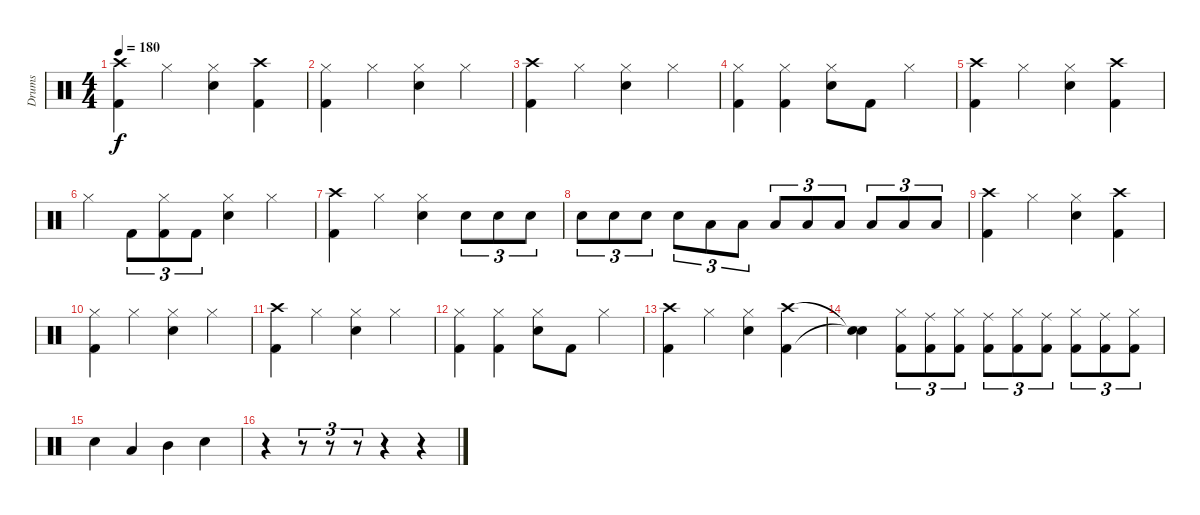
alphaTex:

\track ("Drums" "Drums") {instrument percussion}
\staff {score}
\articulation defaults
\ts (4 4)
\tempo 180
\clef neutral
\ks c
("Crash high (hit)" "Kick (hit) 2").4{dy f} "Hi-Hat (closed)".4 ("Hi-Hat (closed)" "Electric Snare (hit)").4 ("Crash high (hit)" "Kick (hit) 2").4 |
("Hi-Hat (closed)" "Kick (hit) 2").4 "Hi-Hat (closed)".4 ("Hi-Hat (closed)" "Electric Snare (hit)").4 "Hi-Hat (closed)".4 |
("Crash high (hit)" "Kick (hit) 2").4 "Hi-Hat (closed)".4 ("Hi-Hat (closed)" "Electric Snare (hit)").4 "Hi-Hat (closed)".4 |
("Hi-Hat (closed)" "Kick (hit) 2").4 ("Hi-Hat (closed)" "Kick (hit) 2").4 ("Hi-Hat (closed)" "Electric Snare (hit)").8 "Kick (hit) 2".8 "Hi-Hat (closed)".4 |
("Crash high (hit)" "Kick (hit) 2").4 "Hi-Hat (closed)".4 ("Hi-Hat (closed)" "Electric Snare (hit)").4 ("Crash high (hit)" "Kick (hit) 2").4 |
"Hi-Hat (closed)".4 "Kick (hit) 2".8{tu (3 2)} ("Hi-Hat (closed)" "Kick (hit) 2").8{tu (3 2)} "Kick (hit) 2".8{tu (3 2)} ("Hi-Hat (closed)" "Electric Snare (hit)").4 "Hi-Hat (closed)".4 |
("Crash high (hit)" "Kick (hit) 2").4 "Hi-Hat (closed)".4 ("Hi-Hat (closed)" "Electric Snare (hit)").4 "Electric Snare (hit)".8{tu (3 2)} "Electric Snare (hit)".8{tu (3 2)} "Electric Snare (hit)".8{tu (3 2)} |
"Electric Snare (hit)".8{tu (3 2)} "Electric Snare (hit)".8{tu (3 2)} "Electric Snare (hit)".8{tu (3 2)} "Electric Snare (hit)".8{tu (3 2)} "Low Tom (hit)".8{tu (3 2)} "Low Tom (hit)".8{tu (3 2)} "Low Tom (hit)".8{tu (3 2)} "Low Tom (hit)".8{tu (3 2)} "Low Tom (hit)".8{tu (3 2)} "Low Tom (hit)".8{tu (3 2)} "Low Tom (hit)".8{tu (3 2)} "Low Tom (hit)".8{tu (3 2)} |
("Crash high (hit)" "Kick (hit) 2").4 "Hi-Hat (closed)".4 ("Hi-Hat (closed)" "Electric Snare (hit)").4 ("Crash high (hit)" "Kick (hit) 2").4 |
("Hi-Hat (closed)" "Kick (hit) 2").4 "Hi-Hat (closed)".4 ("Hi-Hat (closed)" "Electric Snare (hit)").4 "Hi-Hat (closed)".4 |
("Crash high (hit)" "Kick (hit) 2").4 "Hi-Hat (closed)".4 ("Hi-Hat (closed)" "Electric Snare (hit)").4 "Hi-Hat (closed)".4 |
("Hi-Hat (closed)" "Kick (hit) 2").4 ("Hi-Hat (closed)" "Kick (hit) 2").4 ("Hi-Hat (closed)" "Electric Snare (hit)").8 "Kick (hit) 2".8 "Hi-Hat (closed)".4 |
("Crash high (hit)" "Kick (hit) 2").4 "Hi-Hat (closed)".4 ("Hi-Hat (closed)" "Electric Snare (hit)").4 ("Crash high (hit)" "Kick (hit) 2").4 |
("Snare (hit)"{t} "Snare (hit)"{t}).4 ("Hi-Hat (closed)" "Kick (hit) 2").8{tu (3 2)} ("Ride (middle)" "Kick (hit) 2").8{tu (3 2)} ("Hi-Hat (closed)" "Kick (hit) 2").8{tu (3 2)} ("Ride (middle)" "Kick (hit) 2").8{tu (3 2)} ("Hi-Hat (closed)" "Kick (hit) 2").8{tu (3 2)} ("Ride (middle)" "Kick (hit) 2").8{tu (3 2)} ("Hi-Hat (closed)" "Kick (hit) 2").8{tu (3 2)} ("Ride (middle)" "Kick (hit) 2").8{tu (3 2)} ("Hi-Hat (closed)" "Kick (hit) 2").8{tu (3 2)} |
"Electric Snare (hit)".4 "Low Tom (hit)".4 "Mid Tom (hit)".4 "Electric Snare (hit)".4 |
r.4 r.8{tu (3 2)} r.8{tu (3 2)} r.8{tu (3 2)} r.4 r.4
